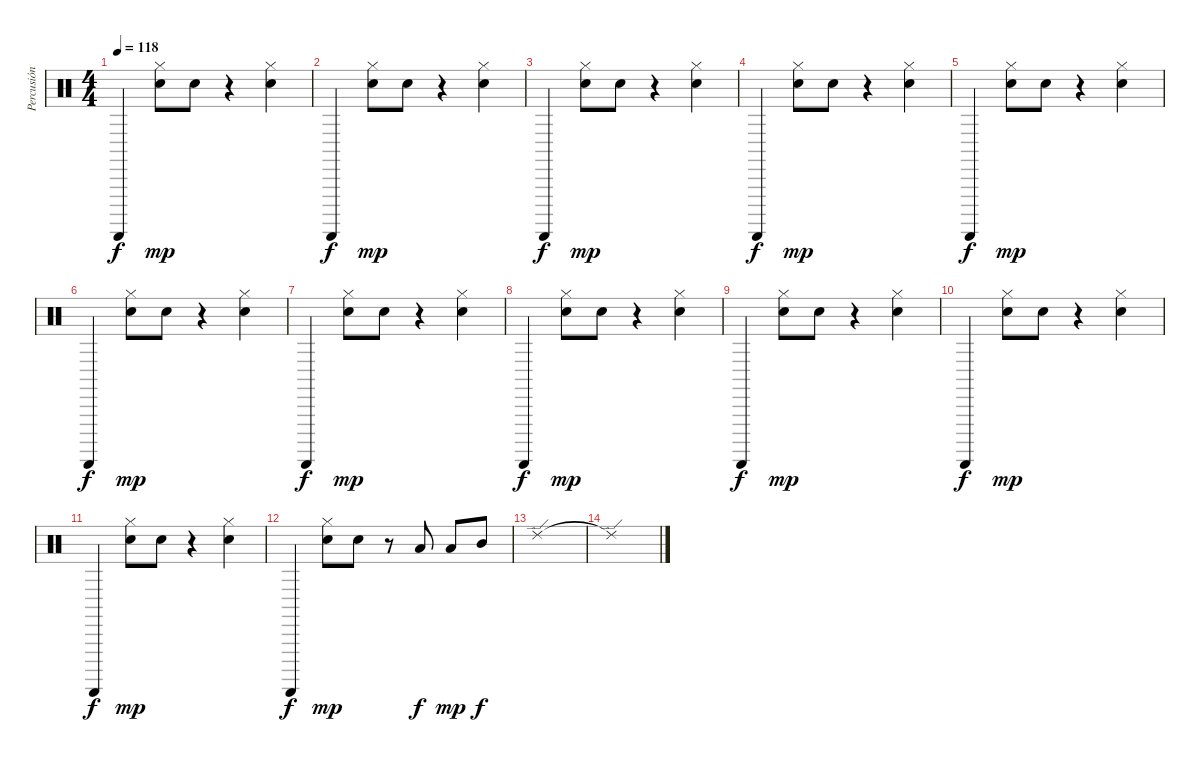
\track ("Percusión" "Percusión") {instrument percussion}
\staff {score}
\articulation defaults
\ts (4 4)
\tempo 118
\clef neutral
\ks c "Guiro (scrap-return)".4{dy f}
("Snare (hit) 2" "Hi-Hat (closed)").8{dy mp} "Snare (hit) 2".8 r.4 ("Snare (hit) 2" "Hi-Hat (closed)").4 |
"Guiro (scrap-return)".4{dy f} ("Snare (hit) 2" "Hi-Hat (closed)").8{dy mp} "Snare (hit) 2".8 r.4 ("Snare (hit) 2" "Hi-Hat (closed)").4 |
"Guiro (scrap-return)".4{dy f} ("Snare (hit) 2" "Hi-Hat (closed)").8{dy mp} "Snare (hit) 2".8 r.4 ("Snare (hit) 2" "Hi-Hat (closed)").4 |
"Guiro (scrap-return)".4{dy f} ("Snare (hit) 2" "Hi-Hat (closed)").8{dy mp} "Snare (hit) 2".8 r.4 ("Snare (hit) 2" "Hi-Hat (closed)").4 |
"Guiro (scrap-return)".4{dy f} ("Snare (hit) 2" "Hi-Hat (closed)").8{dy mp} "Snare (hit) 2".8 r.4 ("Snare (hit) 2" "Hi-Hat (closed)").4 |
"Guiro (scrap-return)".4{dy f} ("Snare (hit) 2" "Hi-Hat (closed)").8{dy mp} "Snare (hit) 2".8 r.4 ("Snare (hit) 2" "Hi-Hat (closed)").4 |
"Guiro (scrap-return)".4{dy f} ("Snare (hit) 2" "Hi-Hat (closed)").8{dy mp} "Snare (hit) 2".8 r.4 ("Snare (hit) 2" "Hi-Hat (closed)").4 |
"Guiro (scrap-return)".4{dy f} ("Snare (hit) 2" "Hi-Hat (closed)").8{dy mp} "Snare (hit) 2".8 r.4 ("Snare (hit) 2" "Hi-Hat (closed)").4 |
"Guiro (scrap-return)".4{dy f} ("Snare (hit) 2" "Hi-Hat (closed)").8{dy mp} "Snare (hit) 2".8 r.4 ("Snare (hit) 2" "Hi-Hat (closed)").4 |
"Guiro (scrap-return)".4{dy f} ("Snare (hit) 2" "Hi-Hat (closed)").8{dy mp} "Snare (hit) 2".8 r.4 ("Snare (hit) 2" "Hi-Hat (closed)").4 |
"Guiro (scrap-return)".4{dy f} ("Snare (hit) 2" "Hi-Hat (closed)").8{dy mp} "Snare (hit) 2".8 r.4 ("Snare (hit) 2" "Hi-Hat (closed)").4 |
"Guiro (scrap-return)".4{dy f} ("Snare (hit) 2" "Hi-Hat (closed)").8{dy mp} "Snare (hit) 2".8 r.8 "Low Tom (hit)".8{dy f} "Low Tom (hit)".8{dy mp} "Mid Tom (hit)".8{dy f} |
"Ride (edge) 2".1 |
"Ride (edge) 2"{t}.1
